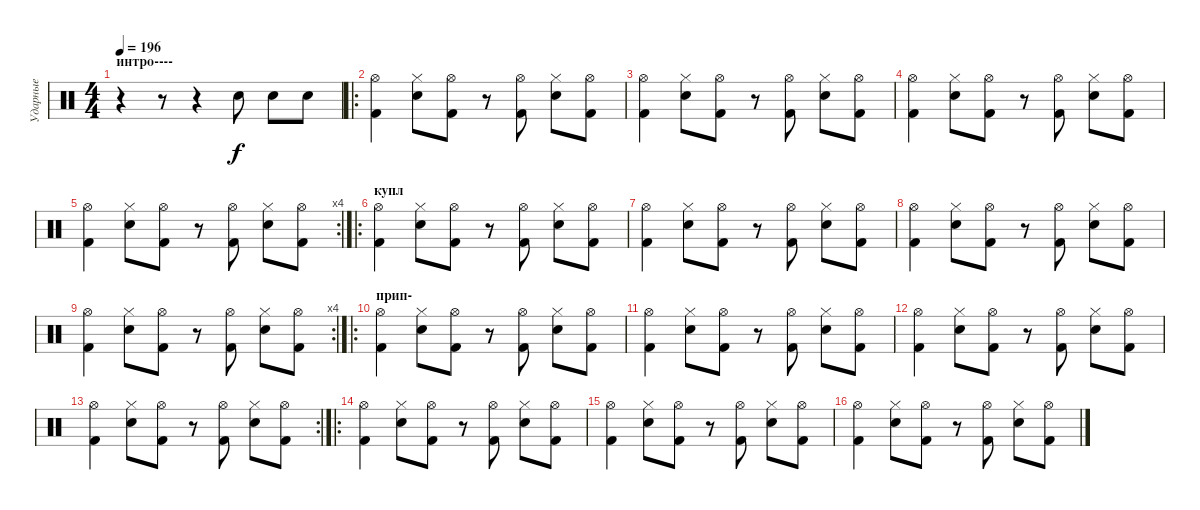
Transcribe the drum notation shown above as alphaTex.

\track ("Ударные" "Ударные") {instrument percussion}
\staff {score}
\articulation defaults
\ts (4 4)
\section ("" "интро----")
\tempo 196
\clef neutral
\ks c
r.4{dy f} r.8 r.4 "Snare (hit) 2".8 "Snare (hit) 2".8 "Snare (hit) 2".8 |
\ro
("Kick (hit) 2" "Hi-Hat (open)").4 ("Snare (hit) 2" "Hi-Hat (closed)").8 ("Kick (hit) 2" "Hi-Hat (open)").8 r.8 ("Kick (hit) 2" "Hi-Hat (open)").8 ("Snare (hit) 2" "Hi-Hat (closed)").8 ("Kick (hit) 2" "Hi-Hat (open)").8 |
("Kick (hit) 2" "Hi-Hat (open)").4 ("Snare (hit) 2" "Hi-Hat (closed)").8 ("Kick (hit) 2" "Hi-Hat (open)").8 r.8 ("Kick (hit) 2" "Hi-Hat (open)").8 ("Snare (hit) 2" "Hi-Hat (closed)").8 ("Kick (hit) 2" "Hi-Hat (open)").8 |
("Kick (hit) 2" "Hi-Hat (open)").4 ("Snare (hit) 2" "Hi-Hat (closed)").8 ("Kick (hit) 2" "Hi-Hat (open)").8 r.8 ("Kick (hit) 2" "Hi-Hat (open)").8 ("Snare (hit) 2" "Hi-Hat (closed)").8 ("Kick (hit) 2" "Hi-Hat (open)").8 |
\rc 4
("Kick (hit) 2" "Hi-Hat (open)").4 ("Snare (hit) 2" "Hi-Hat (closed)").8 ("Kick (hit) 2" "Hi-Hat (open)").8 r.8 ("Kick (hit) 2" "Hi-Hat (open)").8 ("Snare (hit) 2" "Hi-Hat (closed)").8 ("Kick (hit) 2" "Hi-Hat (open)").8 |
\ro
\section ("" "купл")
("Kick (hit) 2" "Hi-Hat (open)").4 ("Snare (hit) 2" "Hi-Hat (closed)").8 ("Kick (hit) 2" "Hi-Hat (open)").8 r.8 ("Kick (hit) 2" "Hi-Hat (open)").8 ("Snare (hit) 2" "Hi-Hat (closed)").8 ("Kick (hit) 2" "Hi-Hat (open)").8 |
("Kick (hit) 2" "Hi-Hat (open)").4 ("Snare (hit) 2" "Hi-Hat (closed)").8 ("Kick (hit) 2" "Hi-Hat (open)").8 r.8 ("Kick (hit) 2" "Hi-Hat (open)").8 ("Snare (hit) 2" "Hi-Hat (closed)").8 ("Kick (hit) 2" "Hi-Hat (open)").8 |
("Kick (hit) 2" "Hi-Hat (open)").4 ("Snare (hit) 2" "Hi-Hat (closed)").8 ("Kick (hit) 2" "Hi-Hat (open)").8 r.8 ("Kick (hit) 2" "Hi-Hat (open)").8 ("Snare (hit) 2" "Hi-Hat (closed)").8 ("Kick (hit) 2" "Hi-Hat (open)").8 |
\rc 4
("Kick (hit) 2" "Hi-Hat (open)").4 ("Snare (hit) 2" "Hi-Hat (closed)").8 ("Kick (hit) 2" "Hi-Hat (open)").8 r.8 ("Kick (hit) 2" "Hi-Hat (open)").8 ("Snare (hit) 2" "Hi-Hat (closed)").8 ("Kick (hit) 2" "Hi-Hat (open)").8 |
\ro
\section ("" "прип-")
("Kick (hit) 2" "Hi-Hat (open)").4 ("Snare (hit) 2" "Hi-Hat (closed)").8 ("Kick (hit) 2" "Hi-Hat (open)").8 r.8 ("Kick (hit) 2" "Hi-Hat (open)").8 ("Snare (hit) 2" "Hi-Hat (closed)").8 ("Kick (hit) 2" "Hi-Hat (open)").8 |
("Kick (hit) 2" "Hi-Hat (open)").4 ("Snare (hit) 2" "Hi-Hat (closed)").8 ("Kick (hit) 2" "Hi-Hat (open)").8 r.8 ("Kick (hit) 2" "Hi-Hat (open)").8 ("Snare (hit) 2" "Hi-Hat (closed)").8 ("Kick (hit) 2" "Hi-Hat (open)").8 |
("Kick (hit) 2" "Hi-Hat (open)").4 ("Snare (hit) 2" "Hi-Hat (closed)").8 ("Kick (hit) 2" "Hi-Hat (open)").8 r.8 ("Kick (hit) 2" "Hi-Hat (open)").8 ("Snare (hit) 2" "Hi-Hat (closed)").8 ("Kick (hit) 2" "Hi-Hat (open)").8 |
\rc 2
("Kick (hit) 2" "Hi-Hat (open)").4 ("Snare (hit) 2" "Hi-Hat (closed)").8 ("Kick (hit) 2" "Hi-Hat (open)").8 r.8 ("Kick (hit) 2" "Hi-Hat (open)").8 ("Snare (hit) 2" "Hi-Hat (closed)").8 ("Kick (hit) 2" "Hi-Hat (open)").8 |
\ro
("Kick (hit) 2" "Hi-Hat (open)").4 ("Snare (hit) 2" "Hi-Hat (closed)").8 ("Kick (hit) 2" "Hi-Hat (open)").8 r.8 ("Kick (hit) 2" "Hi-Hat (open)").8 ("Snare (hit) 2" "Hi-Hat (closed)").8 ("Kick (hit) 2" "Hi-Hat (open)").8 |
("Kick (hit) 2" "Hi-Hat (open)").4 ("Snare (hit) 2" "Hi-Hat (closed)").8 ("Kick (hit) 2" "Hi-Hat (open)").8 r.8 ("Kick (hit) 2" "Hi-Hat (open)").8 ("Snare (hit) 2" "Hi-Hat (closed)").8 ("Kick (hit) 2" "Hi-Hat (open)").8 |
("Kick (hit) 2" "Hi-Hat (open)").4 ("Snare (hit) 2" "Hi-Hat (closed)").8 ("Kick (hit) 2" "Hi-Hat (open)").8 r.8 ("Kick (hit) 2" "Hi-Hat (open)").8 ("Snare (hit) 2" "Hi-Hat (closed)").8 ("Kick (hit) 2" "Hi-Hat (open)").8
